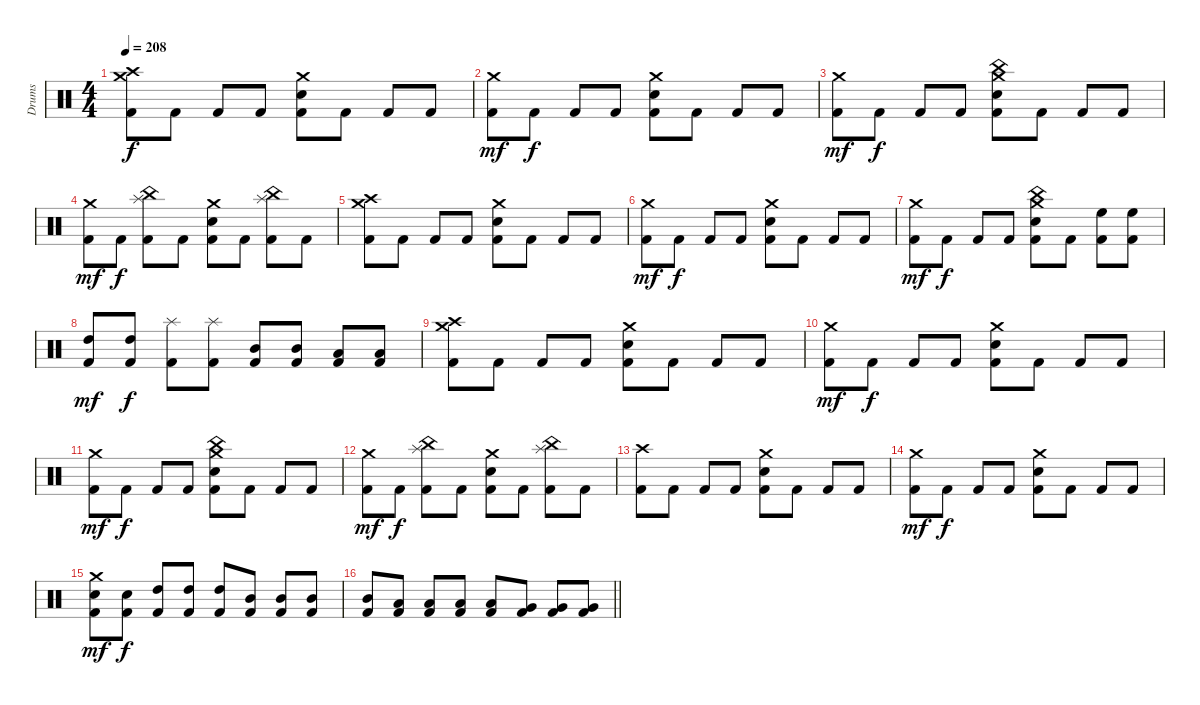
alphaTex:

\track ("Drums" "Drums") {instrument percussion}
\staff {score}
\articulation defaults
\ts (4 4)
\tempo 208
\clef neutral
\ks c
("Crash high (hit)" "Crash medium (hit)" "Kick (hit) 2").8{dy f} "Kick (hit) 2".8 "Kick (hit) 2".8 "Kick (hit) 2".8 ("Crash medium (hit)" "Electric Snare (hit)" "Kick (hit) 2").8 "Kick (hit) 2".8 "Kick (hit) 2".8 "Kick (hit) 2".8 |
("Crash medium (hit)" "Kick (hit) 2").8{dy mf} "Kick (hit) 2".8{dy f} "Kick (hit) 2".8 "Kick (hit) 2".8 ("Crash medium (hit)" "Electric Snare (hit)" "Kick (hit) 2").8 "Kick (hit) 2".8 "Kick (hit) 2".8 "Kick (hit) 2".8 |
("Crash medium (hit)" "Kick (hit) 2").8{dy mf} "Kick (hit) 2".8{dy f} "Kick (hit) 2".8 "Kick (hit) 2".8 ("China (hit)" "Crash medium (hit)" "Electric Snare (hit)" "Kick (hit) 2").8 "Kick (hit) 2".8 "Kick (hit) 2".8 "Kick (hit) 2".8 |
("Crash medium (hit)" "Kick (hit) 2").8{dy mf} "Kick (hit) 2".8{dy f} ("China (hit)" "Splash (hit)" "Kick (hit) 2").8 "Kick (hit) 2".8 ("Crash medium (hit)" "Electric Snare (hit)" "Kick (hit) 2").8 "Kick (hit) 2".8 ("China (hit)" "Splash (hit)" "Kick (hit) 2").8 "Kick (hit) 2".8 |
("Crash high (hit)" "Crash medium (hit)" "Kick (hit) 2").8 "Kick (hit) 2".8 "Kick (hit) 2".8 "Kick (hit) 2".8 ("Crash medium (hit)" "Electric Snare (hit)" "Kick (hit) 2").8 "Kick (hit) 2".8 "Kick (hit) 2".8 "Kick (hit) 2".8 |
("Crash medium (hit)" "Kick (hit) 2").8{dy mf} "Kick (hit) 2".8{dy f} "Kick (hit) 2".8 "Kick (hit) 2".8 ("Crash medium (hit)" "Electric Snare (hit)" "Kick (hit) 2").8 "Kick (hit) 2".8 "Kick (hit) 2".8 "Kick (hit) 2".8 |
("Crash medium (hit)" "Kick (hit) 2").8{dy mf} "Kick (hit) 2".8{dy f} "Kick (hit) 2".8 "Kick (hit) 2".8 ("China (hit)" "Crash medium (hit)" "Electric Snare (hit)" "Kick (hit) 2").8 "Kick (hit) 2".8 ("High Floor Tom (hit)" "Kick (hit) 2").8 ("High Floor Tom (hit)" "Kick (hit) 2").8 |
("High Tom (hit)" "Kick (hit) 2").8{dy mf} ("High Tom (hit)" "Kick (hit) 2").8{dy f} ("Splash (hit)" "Kick (hit) 2").8 ("Splash (hit)" "Kick (hit) 2").8 ("Mid Tom (hit)" "Kick (hit) 2").8 ("Mid Tom (hit)" "Kick (hit) 2").8 ("Low Tom (hit)" "Kick (hit) 2").8 ("Low Tom (hit)" "Kick (hit) 2").8 |
("Crash high (hit)" "Crash medium (hit)" "Kick (hit) 2").8 "Kick (hit) 2".8 "Kick (hit) 2".8 "Kick (hit) 2".8 ("Crash medium (hit)" "Electric Snare (hit)" "Kick (hit) 2").8 "Kick (hit) 2".8 "Kick (hit) 2".8 "Kick (hit) 2".8 |
("Crash medium (hit)" "Kick (hit) 2").8{dy mf} "Kick (hit) 2".8{dy f} "Kick (hit) 2".8 "Kick (hit) 2".8 ("Crash medium (hit)" "Electric Snare (hit)" "Kick (hit) 2").8 "Kick (hit) 2".8 "Kick (hit) 2".8 "Kick (hit) 2".8 |
("Crash medium (hit)" "Kick (hit) 2").8{dy mf} "Kick (hit) 2".8{dy f} "Kick (hit) 2".8 "Kick (hit) 2".8 ("China (hit)" "Crash medium (hit)" "Electric Snare (hit)" "Kick (hit) 2").8 "Kick (hit) 2".8 "Kick (hit) 2".8 "Kick (hit) 2".8 |
("Crash medium (hit)" "Kick (hit) 2").8{dy mf} "Kick (hit) 2".8{dy f} ("China (hit)" "Splash (hit)" "Kick (hit) 2").8 "Kick (hit) 2".8 ("Crash medium (hit)" "Electric Snare (hit)" "Kick (hit) 2").8 "Kick (hit) 2".8 ("China (hit)" "Splash (hit)" "Kick (hit) 2").8 "Kick (hit) 2".8 |
("Crash high (hit)" "Kick (hit) 2").8 "Kick (hit) 2".8 "Kick (hit) 2".8 "Kick (hit) 2".8 ("Crash medium (hit)" "Electric Snare (hit)" "Kick (hit) 2").8 "Kick (hit) 2".8 "Kick (hit) 2".8 "Kick (hit) 2".8 |
("Crash medium (hit)" "Kick (hit) 2").8{dy mf} "Kick (hit) 2".8{dy f} "Kick (hit) 2".8 "Kick (hit) 2".8 ("Crash medium (hit)" "Electric Snare (hit)" "Kick (hit) 2").8 "Kick (hit) 2".8 "Kick (hit) 2".8 "Kick (hit) 2".8 |
("Crash medium (hit)" "Electric Snare (hit)" "Kick (hit) 2").8{dy mf} ("Electric Snare (hit)" "Kick (hit) 2").8{dy f} ("High Tom (hit)" "Kick (hit) 2").8 ("High Tom (hit)" "Kick (hit) 2").8 ("High Tom (hit)" "Kick (hit) 2").8 ("Mid Tom (hit)" "Kick (hit) 2").8 ("Mid Tom (hit)" "Kick (hit) 2").8 ("Mid Tom (hit)" "Kick (hit) 2").8 |
\barLineRight lightlight
("Mid Tom (hit)" "Kick (hit) 2").8 ("Low Tom (hit)" "Kick (hit) 2").8 ("Low Tom (hit)" "Kick (hit) 2").8 ("Low Tom (hit)" "Kick (hit) 2").8 ("Low Tom (hit)" "Kick (hit) 2").8 ("Very Low Tom (hit)" "Kick (hit) 2").8 ("Very Low Tom (hit)" "Kick (hit) 2").8 ("Very Low Tom (hit)" "Kick (hit) 2").8
